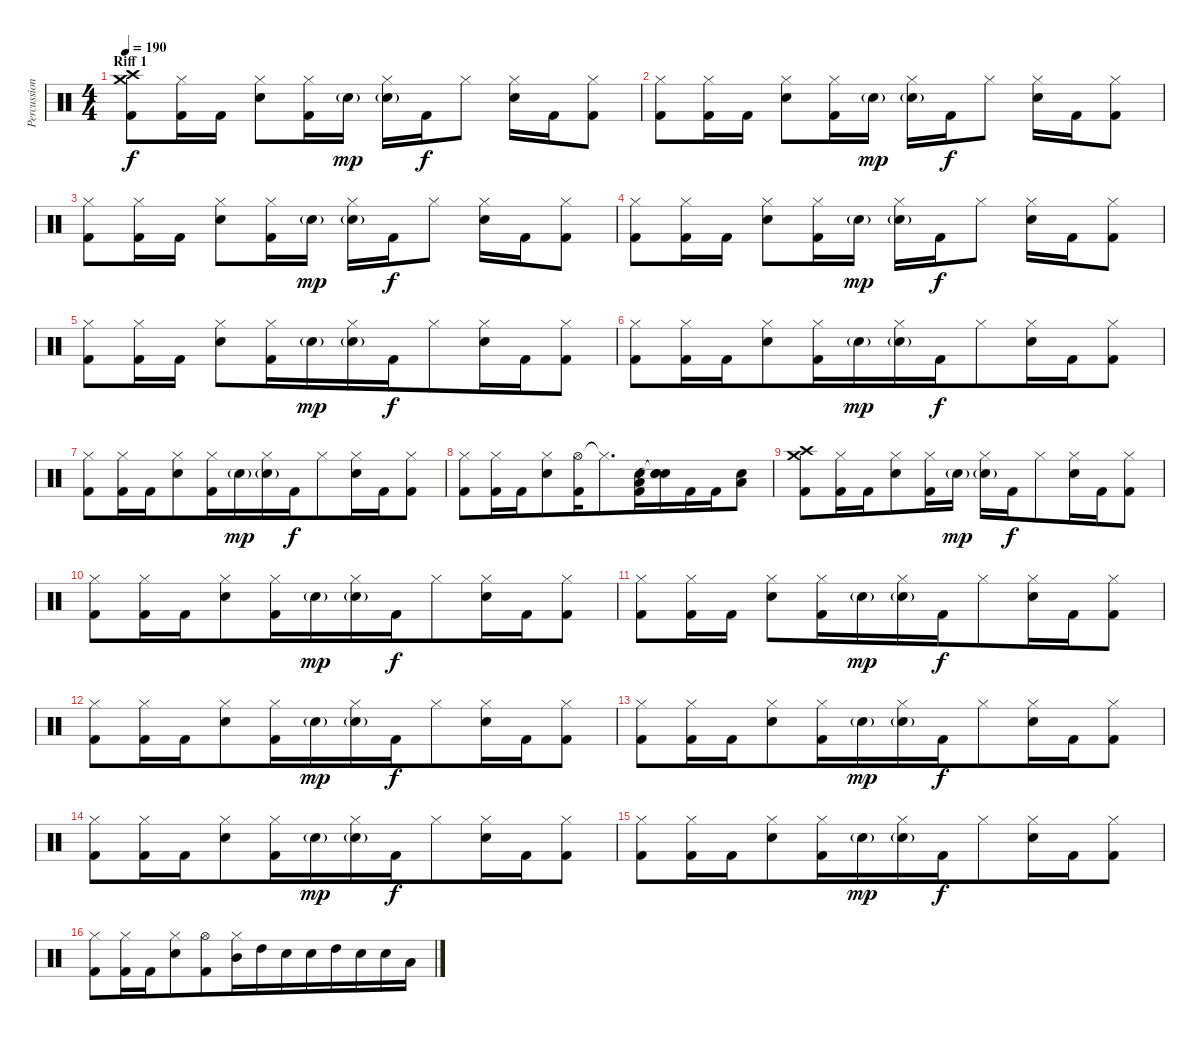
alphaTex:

\track ("Percussion" "Percussion") {instrument percussion}
\staff {score}
\articulation defaults
\ts (4 4)
\section ("" "Riff 1")
\tempo 190
\clef neutral
\ks c
("Crash medium (hit)" "Crash high (hit)" "Kick (hit) 2").8{dy f} ("Hi-Hat (closed)" "Kick (hit) 2").16 "Kick (hit) 2".16 ("Hi-Hat (closed)" "Electric Snare (hit)").8 ("Hi-Hat (closed)" "Kick (hit) 2").16 "Electric Snare (hit)"{g}.16{dy mp} ("Hi-Hat (closed)" "Electric Snare (hit)"{g}).16 "Kick (hit) 2".16{dy f} "Hi-Hat (closed)".8 ("Hi-Hat (closed)" "Electric Snare (hit)").16 "Kick (hit) 2".16 ("Hi-Hat (closed)" "Kick (hit) 2").8 |
("Hi-Hat (closed)" "Kick (hit) 2").8 ("Hi-Hat (closed)" "Kick (hit) 2").16 "Kick (hit) 2".16 ("Hi-Hat (closed)" "Electric Snare (hit)").8 ("Hi-Hat (closed)" "Kick (hit) 2").16 "Electric Snare (hit)"{g}.16{dy mp} ("Hi-Hat (closed)" "Electric Snare (hit)"{g}).16 "Kick (hit) 2".16{dy f} "Hi-Hat (closed)".8 ("Hi-Hat (closed)" "Electric Snare (hit)").16 "Kick (hit) 2".16 ("Hi-Hat (closed)" "Kick (hit) 2").8 |
("Hi-Hat (closed)" "Kick (hit) 2").8 ("Hi-Hat (closed)" "Kick (hit) 2").16 "Kick (hit) 2".16 ("Hi-Hat (closed)" "Electric Snare (hit)").8 ("Hi-Hat (closed)" "Kick (hit) 2").16 "Electric Snare (hit)"{g}.16{dy mp} ("Hi-Hat (closed)" "Electric Snare (hit)"{g}).16 "Kick (hit) 2".16{dy f} "Hi-Hat (closed)".8 ("Hi-Hat (closed)" "Electric Snare (hit)").16 "Kick (hit) 2".16 ("Hi-Hat (closed)" "Kick (hit) 2").8 |
("Hi-Hat (closed)" "Kick (hit) 2").8 ("Hi-Hat (closed)" "Kick (hit) 2").16 "Kick (hit) 2".16 ("Hi-Hat (closed)" "Electric Snare (hit)").8 ("Hi-Hat (closed)" "Kick (hit) 2").16 "Electric Snare (hit)"{g}.16{dy mp} ("Hi-Hat (closed)" "Electric Snare (hit)"{g}).16 "Kick (hit) 2".16{dy f} "Hi-Hat (closed)".8 ("Hi-Hat (closed)" "Electric Snare (hit)").16 "Kick (hit) 2".16 ("Hi-Hat (closed)" "Kick (hit) 2").8 |
("Hi-Hat (closed)" "Kick (hit) 2").8 ("Hi-Hat (closed)" "Kick (hit) 2").16 "Kick (hit) 2".16 ("Hi-Hat (closed)" "Electric Snare (hit)").8 ("Hi-Hat (closed)" "Kick (hit) 2").16{beam merge} "Electric Snare (hit)"{g}.16{dy mp beam merge} ("Hi-Hat (closed)" "Electric Snare (hit)"{g}).16{beam merge} "Kick (hit) 2".16{dy f beam merge} "Hi-Hat (closed)".8{beam merge} ("Hi-Hat (closed)" "Electric Snare (hit)").16{beam merge} "Kick (hit) 2".16{beam merge} ("Hi-Hat (closed)" "Kick (hit) 2").8 |
("Hi-Hat (closed)" "Kick (hit) 2").8{beam merge} ("Hi-Hat (closed)" "Kick (hit) 2").16{beam merge} "Kick (hit) 2".16{beam merge} ("Hi-Hat (closed)" "Electric Snare (hit)").8{beam merge} ("Hi-Hat (closed)" "Kick (hit) 2").16{beam merge} "Electric Snare (hit)"{g}.16{dy mp beam merge} ("Hi-Hat (closed)" "Electric Snare (hit)"{g}).16{beam merge} "Kick (hit) 2".16{dy f beam merge} "Hi-Hat (closed)".8{beam merge} ("Hi-Hat (closed)" "Electric Snare (hit)").16{beam merge} "Kick (hit) 2".16{beam merge} ("Hi-Hat (closed)" "Kick (hit) 2").8 |
("Hi-Hat (closed)" "Kick (hit) 2").8{beam merge} ("Hi-Hat (closed)" "Kick (hit) 2").16{beam merge} "Kick (hit) 2".16{beam merge} ("Hi-Hat (closed)" "Electric Snare (hit)").8{beam merge} ("Hi-Hat (closed)" "Kick (hit) 2").16{beam merge} "Electric Snare (hit)"{g}.16{dy mp beam merge} ("Hi-Hat (closed)" "Electric Snare (hit)"{g}).16{beam merge} "Kick (hit) 2".16{dy f beam merge} "Hi-Hat (closed)".8{beam merge} ("Hi-Hat (closed)" "Electric Snare (hit)").16{beam merge} "Kick (hit) 2".16{beam merge} ("Hi-Hat (closed)" "Kick (hit) 2").8 |
("Hi-Hat (closed)" "Kick (hit) 2").8{beam merge} ("Hi-Hat (closed)" "Kick (hit) 2").16{beam merge} "Kick (hit) 2".16{beam merge} ("Hi-Hat (closed)" "Electric Snare (hit)").8{beam merge} ("Hi-Hat (open)" "Kick (hit) 2").16{beam merge} "Hi-Hat (closed)"{t}.8{d beam merge} ("Electric Snare (hit)" "Low Floor Tom (hit)" "Kick (hit) 2").16{beam merge} ("Snare (hit)"{t} "Snare (hit)"{t} "Snare (hit)"{t}).16{beam merge} "Kick (hit) 2".16{beam merge} "Kick (hit) 2".16{beam merge} ("Electric Snare (hit)" "Low Floor Tom (hit)").8 |
("Crash medium (hit)" "Crash high (hit)" "Kick (hit) 2").8{beam merge} ("Hi-Hat (closed)" "Kick (hit) 2").16{beam merge} "Kick (hit) 2".16{beam merge} ("Hi-Hat (closed)" "Electric Snare (hit)").8{beam merge} ("Hi-Hat (closed)" "Kick (hit) 2").16{beam merge} "Electric Snare (hit)"{g}.16{dy mp} ("Hi-Hat (closed)" "Electric Snare (hit)"{g}).16{beam merge} "Kick (hit) 2".16{dy f beam merge} "Hi-Hat (closed)".8{beam merge} ("Hi-Hat (closed)" "Electric Snare (hit)").16{beam merge} "Kick (hit) 2".16{beam merge} ("Hi-Hat (closed)" "Kick (hit) 2").8 |
("Hi-Hat (closed)" "Kick (hit) 2").8{beam merge} ("Hi-Hat (closed)" "Kick (hit) 2").16{beam merge} "Kick (hit) 2".16{beam merge} ("Hi-Hat (closed)" "Electric Snare (hit)").8{beam merge} ("Hi-Hat (closed)" "Kick (hit) 2").16{beam merge} "Electric Snare (hit)"{g}.16{dy mp beam merge} ("Hi-Hat (closed)" "Electric Snare (hit)"{g}).16{beam merge} "Kick (hit) 2".16{dy f beam merge} "Hi-Hat (closed)".8{beam merge} ("Hi-Hat (closed)" "Electric Snare (hit)").16{beam merge} "Kick (hit) 2".16{beam merge} ("Hi-Hat (closed)" "Kick (hit) 2").8 |
("Hi-Hat (closed)" "Kick (hit) 2").8 ("Hi-Hat (closed)" "Kick (hit) 2").16{beam merge} "Kick (hit) 2".16 ("Hi-Hat (closed)" "Electric Snare (hit)").8{beam merge} ("Hi-Hat (closed)" "Kick (hit) 2").16{beam merge} "Electric Snare (hit)"{g}.16{dy mp beam merge} ("Hi-Hat (closed)" "Electric Snare (hit)"{g}).16{beam merge} "Kick (hit) 2".16{dy f beam merge} "Hi-Hat (closed)".8{beam merge} ("Hi-Hat (closed)" "Electric Snare (hit)").16{beam merge} "Kick (hit) 2".16{beam merge} ("Hi-Hat (closed)" "Kick (hit) 2").8 |
("Hi-Hat (closed)" "Kick (hit) 2").8{beam merge} ("Hi-Hat (closed)" "Kick (hit) 2").16{beam merge} "Kick (hit) 2".16{beam merge} ("Hi-Hat (closed)" "Electric Snare (hit)").8 ("Hi-Hat (closed)" "Kick (hit) 2").16{beam merge} "Electric Snare (hit)"{g}.16{dy mp beam merge} ("Hi-Hat (closed)" "Electric Snare (hit)"{g}).16{beam merge} "Kick (hit) 2".16{dy f beam merge} "Hi-Hat (closed)".8{beam merge} ("Hi-Hat (closed)" "Electric Snare (hit)").16{beam merge} "Kick (hit) 2".16{beam merge} ("Hi-Hat (closed)" "Kick (hit) 2").8 |
("Hi-Hat (closed)" "Kick (hit) 2").8{beam merge} ("Hi-Hat (closed)" "Kick (hit) 2").16{beam merge} "Kick (hit) 2".16{beam merge} ("Hi-Hat (closed)" "Electric Snare (hit)").8{beam merge} ("Hi-Hat (closed)" "Kick (hit) 2").16{beam merge} "Electric Snare (hit)"{g}.16{dy mp beam merge} ("Hi-Hat (closed)" "Electric Snare (hit)"{g}).16{beam merge} "Kick (hit) 2".16{dy f beam merge} "Hi-Hat (closed)".8{beam merge} ("Hi-Hat (closed)" "Electric Snare (hit)").16{beam merge} "Kick (hit) 2".16{beam merge} ("Hi-Hat (closed)" "Kick (hit) 2").8 |
("Hi-Hat (closed)" "Kick (hit) 2").8{beam merge} ("Hi-Hat (closed)" "Kick (hit) 2").16{beam merge} "Kick (hit) 2".16{beam merge} ("Hi-Hat (closed)" "Electric Snare (hit)").8{beam merge} ("Hi-Hat (closed)" "Kick (hit) 2").16{beam merge} "Electric Snare (hit)"{g}.16{dy mp beam merge} ("Hi-Hat (closed)" "Electric Snare (hit)"{g}).16{beam merge} "Kick (hit) 2".16{dy f beam merge} "Hi-Hat (closed)".8{beam merge} ("Hi-Hat (closed)" "Electric Snare (hit)").16{beam merge} "Kick (hit) 2".16{beam merge} ("Hi-Hat (closed)" "Kick (hit) 2").8 |
("Hi-Hat (closed)" "Kick (hit) 2").8{beam merge} ("Hi-Hat (closed)" "Kick (hit) 2").16{beam merge} "Kick (hit) 2".16{beam merge} ("Hi-Hat (closed)" "Electric Snare (hit)").8{beam merge} ("Hi-Hat (closed)" "Kick (hit) 2").16{beam merge} "Electric Snare (hit)"{g}.16{dy mp beam merge} ("Hi-Hat (closed)" "Electric Snare (hit)"{g}).16{beam merge} "Kick (hit) 2".16{dy f beam merge} "Hi-Hat (closed)".8{beam merge} ("Hi-Hat (closed)" "Electric Snare (hit)").16{beam merge} "Kick (hit) 2".16{beam merge} ("Hi-Hat (closed)" "Kick (hit) 2").8 |
("Hi-Hat (closed)" "Kick (hit) 2").8{beam merge} ("Hi-Hat (closed)" "Kick (hit) 2").16{beam merge} "Kick (hit) 2".16{beam merge} ("Hi-Hat (closed)" "Electric Snare (hit)").8{beam merge} ("Hi-Hat (open)" "Kick (hit) 2").8{beam merge} ("Hi-Hat (closed)" "Mid Tom (hit)").16{beam merge} "High Tom (hit)".16{beam merge} "Electric Snare (hit)".16{beam merge} "Electric Snare (hit)".16{beam merge} "High Tom (hit)".16{beam merge} "Electric Snare (hit)".16{beam merge} "Electric Snare (hit)".16{beam merge} "Low Tom (hit)".16
